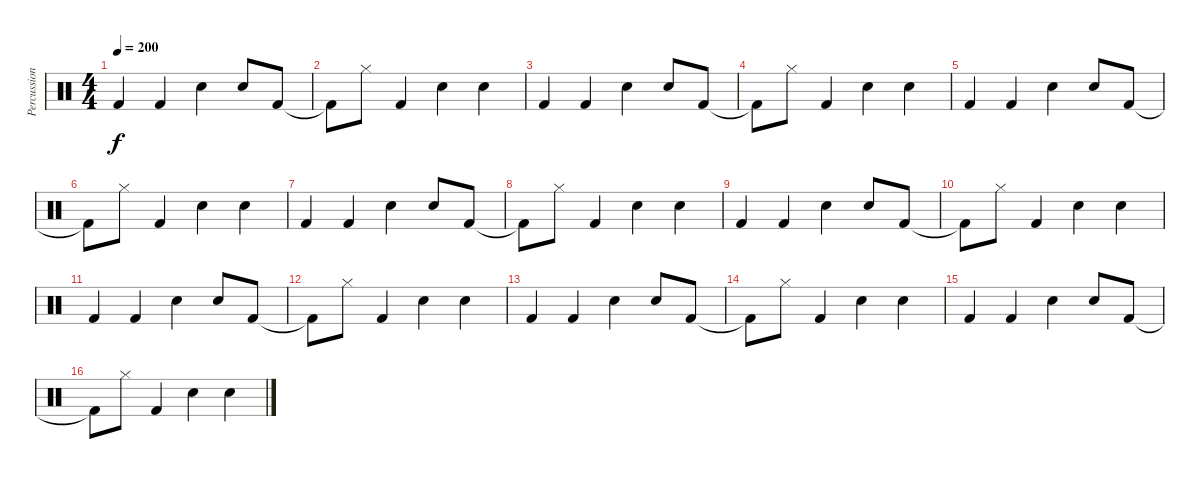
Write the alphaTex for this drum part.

\track ("Percussion" "Percussion") {instrument percussion}
\staff {score}
\articulation defaults
\ts (4 4)
\tempo 200
\clef neutral
\ks c "Kick (hit) 2".4{dy f} "Kick (hit) 2".4 "Hand Clap (hit)".4 "Hand Clap (hit)".8 "Kick (hit) 2".8
|
"Kick (hit) 2"{t}.8 "Hi-Hat (closed)".8 "Kick (hit) 2".4 "Hand Clap (hit)".4 "Hand Clap (hit)".4 |
"Kick (hit) 2".4 "Kick (hit) 2".4 "Hand Clap (hit)".4 "Hand Clap (hit)".8 "Kick (hit) 2".8 |
"Kick (hit) 2"{t}.8 "Hi-Hat (closed)".8 "Kick (hit) 2".4 "Hand Clap (hit)".4 "Hand Clap (hit)".4 |
"Kick (hit) 2".4 "Kick (hit) 2".4 "Hand Clap (hit)".4 "Hand Clap (hit)".8 "Kick (hit) 2".8 |
"Kick (hit) 2"{t}.8 "Hi-Hat (closed)".8 "Kick (hit) 2".4 "Hand Clap (hit)".4 "Hand Clap (hit)".4 |
"Kick (hit) 2".4 "Kick (hit) 2".4 "Hand Clap (hit)".4 "Hand Clap (hit)".8 "Kick (hit) 2".8 |
"Kick (hit) 2"{t}.8 "Hi-Hat (closed)".8 "Kick (hit) 2".4 "Hand Clap (hit)".4 "Hand Clap (hit)".4 |
"Kick (hit) 2".4 "Kick (hit) 2".4 "Hand Clap (hit)".4 "Hand Clap (hit)".8 "Kick (hit) 2".8 |
"Kick (hit) 2"{t}.8 "Hi-Hat (closed)".8 "Kick (hit) 2".4 "Hand Clap (hit)".4 "Hand Clap (hit)".4 |
"Kick (hit) 2".4 "Kick (hit) 2".4 "Hand Clap (hit)".4 "Hand Clap (hit)".8 "Kick (hit) 2".8 |
"Kick (hit) 2"{t}.8 "Hi-Hat (closed)".8 "Kick (hit) 2".4 "Hand Clap (hit)".4 "Hand Clap (hit)".4 |
"Kick (hit) 2".4 "Kick (hit) 2".4 "Hand Clap (hit)".4 "Hand Clap (hit)".8 "Kick (hit) 2".8 |
"Kick (hit) 2"{t}.8 "Hi-Hat (closed)".8 "Kick (hit) 2".4 "Hand Clap (hit)".4 "Hand Clap (hit)".4 |
"Kick (hit) 2".4 "Kick (hit) 2".4 "Hand Clap (hit)".4 "Hand Clap (hit)".8 "Kick (hit) 2".8 |
"Kick (hit) 2"{t}.8 "Hi-Hat (closed)".8 "Kick (hit) 2".4 "Hand Clap (hit)".4 "Hand Clap (hit)".4
